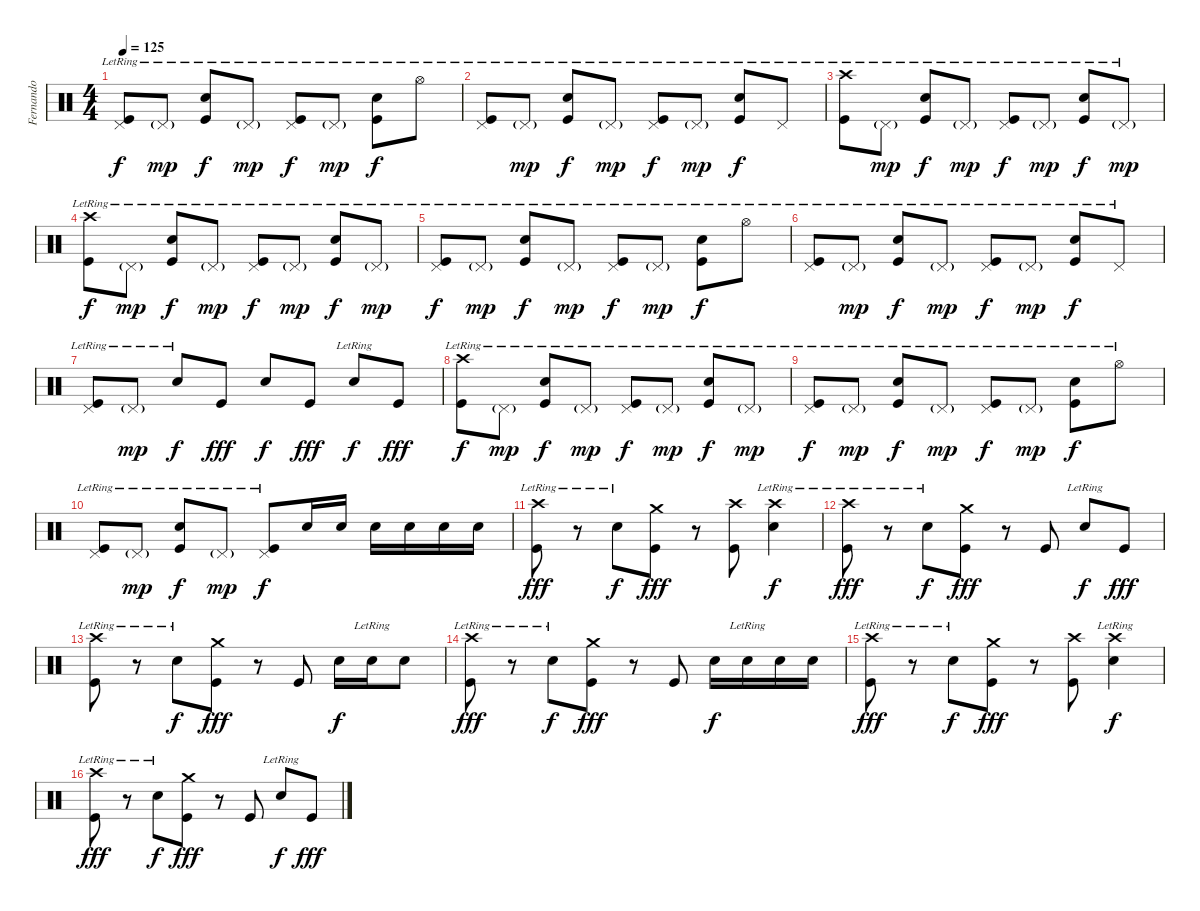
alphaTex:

\track ("Fernando" "Fernando") {instrument percussion}
\staff {score}
\articulation defaults
\ts (4 4)
\tempo 125
\clef neutral
\ks c
("Pedal Hi-Hat (hit)"{lr} "Kick (hit)"{lr}).8{dy f} "Pedal Hi-Hat (hit)"{g lr}.8{dy mp} ("Electric Snare (hit)"{lr} "Kick (hit)"{lr}).8{dy f} "Pedal Hi-Hat (hit)"{g lr}.8{dy mp} ("Pedal Hi-Hat (hit)"{lr} "Kick (hit)"{lr}).8{dy f} "Pedal Hi-Hat (hit)"{g lr}.8{dy mp} ("Electric Snare (hit)"{lr} "Kick (hit)"{lr}).8{dy f} "Hi-Hat (open)"{lr}.8 |
("Pedal Hi-Hat (hit)"{lr} "Kick (hit)"{lr}).8 "Pedal Hi-Hat (hit)"{g lr}.8{dy mp} ("Electric Snare (hit)"{lr} "Kick (hit)"{lr}).8{dy f} "Pedal Hi-Hat (hit)"{g lr}.8{dy mp} ("Pedal Hi-Hat (hit)"{lr} "Kick (hit)"{lr}).8{dy f} "Pedal Hi-Hat (hit)"{g lr}.8{dy mp} ("Electric Snare (hit)"{lr} "Kick (hit)"{lr}).8{dy f} "Pedal Hi-Hat (hit)"{lr}.8 |
("Crash high (hit)"{lr} "Kick (hit)"{lr}).8 "Pedal Hi-Hat (hit)"{g lr}.8{dy mp} ("Electric Snare (hit)"{lr} "Kick (hit)"{lr}).8{dy f} "Pedal Hi-Hat (hit)"{g lr}.8{dy mp} ("Pedal Hi-Hat (hit)"{lr} "Kick (hit)"{lr}).8{dy f} "Pedal Hi-Hat (hit)"{g lr}.8{dy mp} ("Electric Snare (hit)"{lr} "Kick (hit)"{lr}).8{dy f} "Pedal Hi-Hat (hit)"{g lr}.8{dy mp} |
("Crash high (hit)" "Kick (hit)"{lr}).8{dy f} "Pedal Hi-Hat (hit)"{g lr}.8{dy mp} ("Electric Snare (hit)"{lr} "Kick (hit)"{lr}).8{dy f} "Pedal Hi-Hat (hit)"{g lr}.8{dy mp} ("Pedal Hi-Hat (hit)"{lr} "Kick (hit)"{lr}).8{dy f} "Pedal Hi-Hat (hit)"{g lr}.8{dy mp} ("Electric Snare (hit)"{lr} "Kick (hit)"{lr}).8{dy f} "Pedal Hi-Hat (hit)"{g lr}.8{dy mp} |
("Pedal Hi-Hat (hit)"{lr} "Kick (hit)"{lr}).8{dy f} "Pedal Hi-Hat (hit)"{g lr}.8{dy mp} ("Electric Snare (hit)"{lr} "Kick (hit)"{lr}).8{dy f} "Pedal Hi-Hat (hit)"{g lr}.8{dy mp} ("Pedal Hi-Hat (hit)"{lr} "Kick (hit)"{lr}).8{dy f} "Pedal Hi-Hat (hit)"{g lr}.8{dy mp} ("Electric Snare (hit)"{lr} "Kick (hit)"{lr}).8{dy f} "Hi-Hat (open)"{lr}.8 |
("Pedal Hi-Hat (hit)"{lr} "Kick (hit)"{lr}).8 "Pedal Hi-Hat (hit)"{g lr}.8{dy mp} ("Electric Snare (hit)"{lr} "Kick (hit)"{lr}).8{dy f} "Pedal Hi-Hat (hit)"{g lr}.8{dy mp} ("Pedal Hi-Hat (hit)"{lr} "Kick (hit)"{lr}).8{dy f} "Pedal Hi-Hat (hit)"{g lr}.8{dy mp} ("Electric Snare (hit)"{lr} "Kick (hit)"{lr}).8{dy f} "Pedal Hi-Hat (hit)"{lr}.8 |
("Pedal Hi-Hat (hit)"{lr} "Kick (hit)"{lr}).8 "Pedal Hi-Hat (hit)"{g lr}.8{dy mp} "Electric Snare (hit)"{lr}.8{dy f} "Kick (hit)".8{dy fff} "Electric Snare (hit)".8{dy f} "Kick (hit)".8{dy fff} "Electric Snare (hit)"{lr}.8{dy f} "Kick (hit)".8{dy fff} |
("Crash high (hit)" "Kick (hit)"{lr}).8{dy f} "Pedal Hi-Hat (hit)"{g lr}.8{dy mp} ("Electric Snare (hit)"{lr} "Kick (hit)"{lr}).8{dy f} "Pedal Hi-Hat (hit)"{g lr}.8{dy mp} ("Pedal Hi-Hat (hit)"{lr} "Kick (hit)"{lr}).8{dy f} "Pedal Hi-Hat (hit)"{g lr}.8{dy mp} ("Electric Snare (hit)"{lr} "Kick (hit)"{lr}).8{dy f} "Pedal Hi-Hat (hit)"{g lr}.8{dy mp} |
("Pedal Hi-Hat (hit)"{lr} "Kick (hit)"{lr}).8{dy f} "Pedal Hi-Hat (hit)"{g lr}.8{dy mp} ("Electric Snare (hit)"{lr} "Kick (hit)"{lr}).8{dy f} "Pedal Hi-Hat (hit)"{g lr}.8{dy mp} ("Pedal Hi-Hat (hit)"{lr} "Kick (hit)"{lr}).8{dy f} "Pedal Hi-Hat (hit)"{g lr}.8{dy mp} ("Electric Snare (hit)"{lr} "Kick (hit)"{lr}).8{dy f} "Hi-Hat (open)"{lr}.8 |
("Pedal Hi-Hat (hit)"{lr} "Kick (hit)"{lr}).8 "Pedal Hi-Hat (hit)"{g lr}.8{dy mp} ("Electric Snare (hit)"{lr} "Kick (hit)"{lr}).8{dy f} "Pedal Hi-Hat (hit)"{g lr}.8{dy mp} ("Pedal Hi-Hat (hit)"{lr} "Kick (hit)"{lr}).8{dy f} "Electric Snare (hit)".16 "Electric Snare (hit)".16 "Electric Snare (hit)".16 "Electric Snare (hit)".16 "Electric Snare (hit)".16 "Electric Snare (hit)".16 |
("Crash high (hit)" "Kick (hit)"{lr}).8{dy fff} r.8 "Electric Snare (hit)"{lr}.8{dy f} ("Crash medium (hit)" "Kick (hit)").8{dy fff} r.8 ("Crash high (hit)" "Kick (hit)").8 ("Crash high (hit)" "Electric Snare (hit)"{lr}).4{dy f} |
("Crash high (hit)" "Kick (hit)"{lr}).8{dy fff} r.8 "Electric Snare (hit)"{lr}.8{dy f} ("Crash medium (hit)" "Kick (hit)").8{dy fff} r.8 "Kick (hit)".8 "Electric Snare (hit)"{lr}.8{dy f} "Kick (hit)".8{dy fff} |
("Crash high (hit)" "Kick (hit)"{lr}).8 r.8 "Electric Snare (hit)"{lr}.8{dy f} ("Crash medium (hit)" "Kick (hit)").8{dy fff} r.8 "Kick (hit)".8 "Electric Snare (hit)".16{dy f} "Electric Snare (hit)"{lr}.16 "Electric Snare (hit)".8 |
("Crash high (hit)" "Kick (hit)"{lr}).8{dy fff} r.8 "Electric Snare (hit)"{lr}.8{dy f} ("Crash medium (hit)" "Kick (hit)").8{dy fff} r.8 "Kick (hit)".8 "Electric Snare (hit)".16{dy f} "Electric Snare (hit)"{lr}.16 "Electric Snare (hit)".16 "Electric Snare (hit)".16 |
("Crash high (hit)" "Kick (hit)"{lr}).8{dy fff} r.8 "Electric Snare (hit)"{lr}.8{dy f} ("Crash medium (hit)" "Kick (hit)").8{dy fff} r.8 ("Crash high (hit)" "Kick (hit)").8 ("Crash high (hit)" "Electric Snare (hit)"{lr}).4{dy f} |
("Crash high (hit)" "Kick (hit)"{lr}).8{dy fff} r.8 "Electric Snare (hit)"{lr}.8{dy f} ("Crash medium (hit)" "Kick (hit)").8{dy fff} r.8 "Kick (hit)".8 "Electric Snare (hit)"{lr}.8{dy f} "Kick (hit)".8{dy fff}
